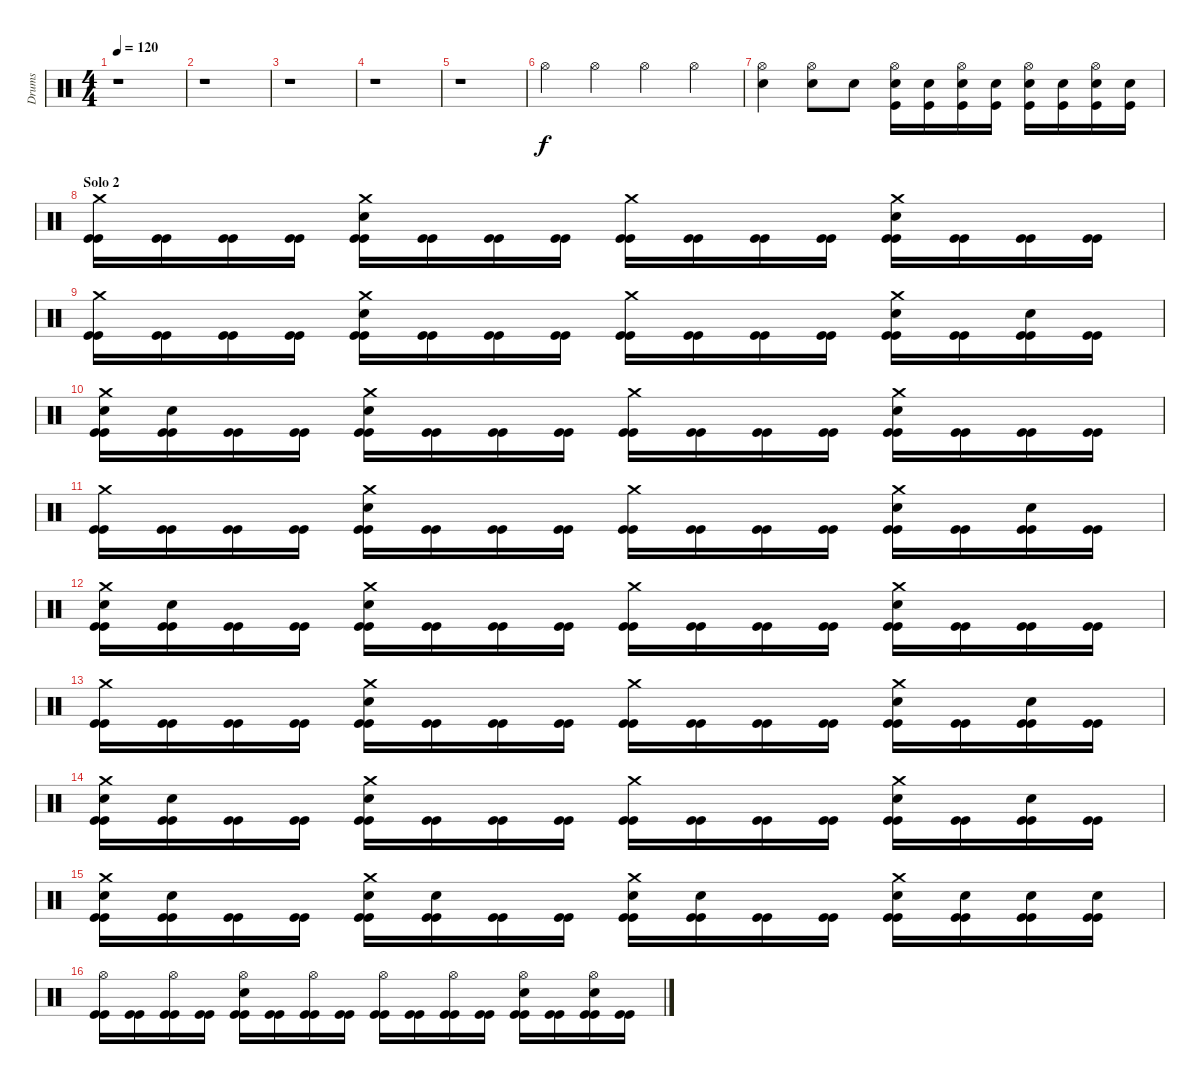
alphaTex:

\track ("Drums" "Drums") {instrument percussion}
\staff {score}
\articulation defaults
\ts (4 4)
\tempo 120
\clef neutral
\ks c
r.1{dy f} |
r.1 |
r.1 |
r.1 |
r.1 |
"Hi-Hat (open)".4 "Hi-Hat (open)".4 "Hi-Hat (open)".4 "Hi-Hat (open)".4 |
("Hi-Hat (open)" "Snare (hit) 2").4 ("Hi-Hat (open)" "Snare (hit) 2").8 "Snare (hit) 2".8 ("Hi-Hat (open)" "Snare (hit) 2" "Kick (hit)").16 ("Snare (hit) 2" "Kick (hit)").16 ("Hi-Hat (open)" "Snare (hit) 2" "Kick (hit)").16 ("Snare (hit) 2" "Kick (hit)").16 ("Hi-Hat (open)" "Snare (hit) 2" "Kick (hit)").16 ("Snare (hit) 2" "Kick (hit)").16 ("Hi-Hat (open)" "Snare (hit) 2" "Kick (hit)").16 ("Snare (hit) 2" "Kick (hit)").16 |
\section ("" "Solo 2")
("Crash medium (hit)" "Kick (hit)" "Kick (hit)").16 ("Kick (hit)" "Kick (hit)").16 ("Kick (hit)" "Kick (hit)").16 ("Kick (hit)" "Kick (hit)").16 ("Crash medium (hit)" "Snare (hit) 2" "Kick (hit)" "Kick (hit)").16 ("Kick (hit)" "Kick (hit)").16 ("Kick (hit)" "Kick (hit)").16 ("Kick (hit)" "Kick (hit)").16 ("Crash medium (hit)" "Kick (hit)" "Kick (hit)").16 ("Kick (hit)" "Kick (hit)").16 ("Kick (hit)" "Kick (hit)").16 ("Kick (hit)" "Kick (hit)").16 ("Crash medium (hit)" "Snare (hit) 2" "Kick (hit)" "Kick (hit)").16 ("Kick (hit)" "Kick (hit)").16 ("Kick (hit)" "Kick (hit)").16 ("Kick (hit)" "Kick (hit)").16 |
("Crash medium (hit)" "Kick (hit)" "Kick (hit)").16 ("Kick (hit)" "Kick (hit)").16 ("Kick (hit)" "Kick (hit)").16 ("Kick (hit)" "Kick (hit)").16 ("Crash medium (hit)" "Snare (hit) 2" "Kick (hit)" "Kick (hit)").16 ("Kick (hit)" "Kick (hit)").16 ("Kick (hit)" "Kick (hit)").16 ("Kick (hit)" "Kick (hit)").16 ("Crash medium (hit)" "Kick (hit)" "Kick (hit)").16 ("Kick (hit)" "Kick (hit)").16 ("Kick (hit)" "Kick (hit)").16 ("Kick (hit)" "Kick (hit)").16 ("Crash medium (hit)" "Snare (hit) 2" "Kick (hit)" "Kick (hit)").16 ("Kick (hit)" "Kick (hit)").16 ("Snare (hit) 2" "Kick (hit)" "Kick (hit)").16 ("Kick (hit)" "Kick (hit)").16 |
("Crash medium (hit)" "Snare (hit) 2" "Kick (hit)" "Kick (hit)").16 ("Snare (hit) 2" "Kick (hit)" "Kick (hit)").16 ("Kick (hit)" "Kick (hit)").16 ("Kick (hit)" "Kick (hit)").16 ("Crash medium (hit)" "Snare (hit) 2" "Kick (hit)" "Kick (hit)").16 ("Kick (hit)" "Kick (hit)").16 ("Kick (hit)" "Kick (hit)").16 ("Kick (hit)" "Kick (hit)").16 ("Crash medium (hit)" "Kick (hit)" "Kick (hit)").16 ("Kick (hit)" "Kick (hit)").16 ("Kick (hit)" "Kick (hit)").16 ("Kick (hit)" "Kick (hit)").16 ("Crash medium (hit)" "Snare (hit) 2" "Kick (hit)" "Kick (hit)").16 ("Kick (hit)" "Kick (hit)").16 ("Kick (hit)" "Kick (hit)").16 ("Kick (hit)" "Kick (hit)").16 |
("Crash medium (hit)" "Kick (hit)" "Kick (hit)").16 ("Kick (hit)" "Kick (hit)").16 ("Kick (hit)" "Kick (hit)").16 ("Kick (hit)" "Kick (hit)").16 ("Crash medium (hit)" "Snare (hit) 2" "Kick (hit)" "Kick (hit)").16 ("Kick (hit)" "Kick (hit)").16 ("Kick (hit)" "Kick (hit)").16 ("Kick (hit)" "Kick (hit)").16 ("Crash medium (hit)" "Kick (hit)" "Kick (hit)").16 ("Kick (hit)" "Kick (hit)").16 ("Kick (hit)" "Kick (hit)").16 ("Kick (hit)" "Kick (hit)").16 ("Crash medium (hit)" "Snare (hit) 2" "Kick (hit)" "Kick (hit)").16 ("Kick (hit)" "Kick (hit)").16 ("Snare (hit) 2" "Kick (hit)" "Kick (hit)").16 ("Kick (hit)" "Kick (hit)").16 |
("Crash medium (hit)" "Snare (hit) 2" "Kick (hit)" "Kick (hit)").16 ("Snare (hit) 2" "Kick (hit)" "Kick (hit)").16 ("Kick (hit)" "Kick (hit)").16 ("Kick (hit)" "Kick (hit)").16 ("Crash medium (hit)" "Snare (hit) 2" "Kick (hit)" "Kick (hit)").16 ("Kick (hit)" "Kick (hit)").16 ("Kick (hit)" "Kick (hit)").16 ("Kick (hit)" "Kick (hit)").16 ("Crash medium (hit)" "Kick (hit)" "Kick (hit)").16 ("Kick (hit)" "Kick (hit)").16 ("Kick (hit)" "Kick (hit)").16 ("Kick (hit)" "Kick (hit)").16 ("Crash medium (hit)" "Snare (hit) 2" "Kick (hit)" "Kick (hit)").16 ("Kick (hit)" "Kick (hit)").16 ("Kick (hit)" "Kick (hit)").16 ("Kick (hit)" "Kick (hit)").16 |
("Crash medium (hit)" "Kick (hit)" "Kick (hit)").16 ("Kick (hit)" "Kick (hit)").16 ("Kick (hit)" "Kick (hit)").16 ("Kick (hit)" "Kick (hit)").16 ("Crash medium (hit)" "Snare (hit) 2" "Kick (hit)" "Kick (hit)").16 ("Kick (hit)" "Kick (hit)").16 ("Kick (hit)" "Kick (hit)").16 ("Kick (hit)" "Kick (hit)").16 ("Crash medium (hit)" "Kick (hit)" "Kick (hit)").16 ("Kick (hit)" "Kick (hit)").16 ("Kick (hit)" "Kick (hit)").16 ("Kick (hit)" "Kick (hit)").16 ("Crash medium (hit)" "Snare (hit) 2" "Kick (hit)" "Kick (hit)").16 ("Kick (hit)" "Kick (hit)").16 ("Snare (hit) 2" "Kick (hit)" "Kick (hit)").16 ("Kick (hit)" "Kick (hit)").16 |
("Crash medium (hit)" "Snare (hit) 2" "Kick (hit)" "Kick (hit)").16 ("Snare (hit) 2" "Kick (hit)" "Kick (hit)").16 ("Kick (hit)" "Kick (hit)").16 ("Kick (hit)" "Kick (hit)").16 ("Crash medium (hit)" "Snare (hit) 2" "Kick (hit)" "Kick (hit)").16 ("Kick (hit)" "Kick (hit)").16 ("Kick (hit)" "Kick (hit)").16 ("Kick (hit)" "Kick (hit)").16 ("Crash medium (hit)" "Kick (hit)" "Kick (hit)").16 ("Kick (hit)" "Kick (hit)").16 ("Kick (hit)" "Kick (hit)").16 ("Kick (hit)" "Kick (hit)").16 ("Crash medium (hit)" "Snare (hit) 2" "Kick (hit)" "Kick (hit)").16 ("Kick (hit)" "Kick (hit)").16 ("Snare (hit) 2" "Kick (hit)" "Kick (hit)").16 ("Kick (hit)" "Kick (hit)").16 |
("Crash medium (hit)" "Snare (hit) 2" "Kick (hit)" "Kick (hit)").16 ("Snare (hit) 2" "Kick (hit)" "Kick (hit)").16 ("Kick (hit)" "Kick (hit)").16 ("Kick (hit)" "Kick (hit)").16 ("Crash medium (hit)" "Snare (hit) 2" "Kick (hit)" "Kick (hit)").16 ("Snare (hit) 2" "Kick (hit)" "Kick (hit)").16 ("Kick (hit)" "Kick (hit)").16 ("Kick (hit)" "Kick (hit)").16 ("Crash medium (hit)" "Snare (hit) 2" "Kick (hit)" "Kick (hit)").16 ("Snare (hit) 2" "Kick (hit)" "Kick (hit)").16 ("Kick (hit)" "Kick (hit)").16 ("Kick (hit)" "Kick (hit)").16 ("Crash medium (hit)" "Snare (hit) 2" "Kick (hit)" "Kick (hit)").16 ("Snare (hit) 2" "Kick (hit)" "Kick (hit)").16 ("Snare (hit) 2" "Kick (hit)" "Kick (hit)").16 ("Snare (hit) 2" "Kick (hit)" "Kick (hit)").16 |
("Hi-Hat (open)" "Kick (hit)" "Kick (hit)").16 ("Kick (hit)" "Kick (hit)").16 ("Hi-Hat (open)" "Kick (hit)" "Kick (hit)").16 ("Kick (hit)" "Kick (hit)").16 ("Hi-Hat (open)" "Snare (hit) 2" "Kick (hit)" "Kick (hit)").16 ("Kick (hit)" "Kick (hit)").16 ("Hi-Hat (open)" "Kick (hit)" "Kick (hit)").16 ("Kick (hit)" "Kick (hit)").16 ("Hi-Hat (open)" "Kick (hit)" "Kick (hit)").16 ("Kick (hit)" "Kick (hit)").16 ("Hi-Hat (open)" "Kick (hit)" "Kick (hit)").16 ("Kick (hit)" "Kick (hit)").16 ("Hi-Hat (open)" "Snare (hit) 2" "Kick (hit)" "Kick (hit)").16 ("Kick (hit)" "Kick (hit)").16 ("Hi-Hat (open)" "Snare (hit) 2" "Kick (hit)" "Kick (hit)").16 ("Kick (hit)" "Kick (hit)").16
